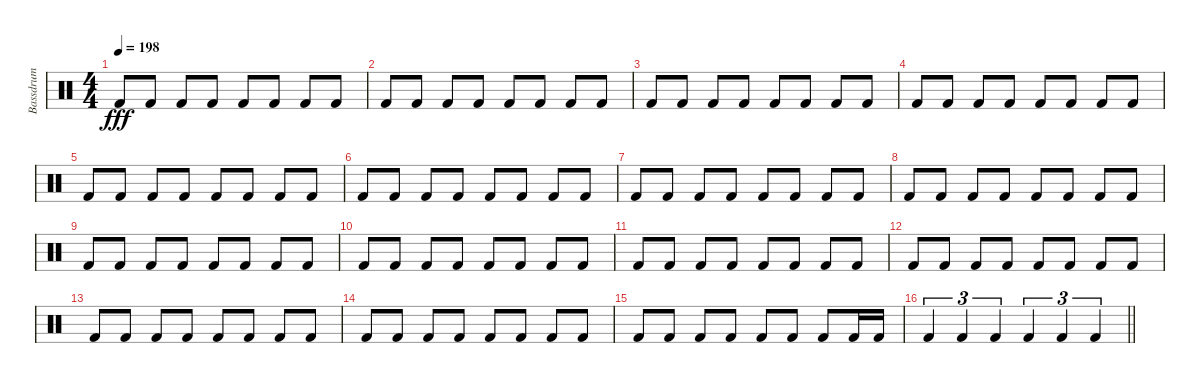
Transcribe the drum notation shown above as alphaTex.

\track ("Bassdrum" "Bassdrum") {instrument percussion}
\staff {score}
\articulation defaults
\ts (4 4)
\section ("" "")
\tempo 198
\clef neutral
\ks c "Kick (hit) 2".8{dy fff volume 15} "Kick (hit) 2".8 "Kick (hit) 2".8 "Kick (hit) 2".8 "Kick (hit) 2".8 "Kick (hit) 2".8 "Kick (hit) 2".8 "Kick (hit) 2".8
|
"Kick (hit) 2".8 "Kick (hit) 2".8 "Kick (hit) 2".8 "Kick (hit) 2".8 "Kick (hit) 2".8 "Kick (hit) 2".8 "Kick (hit) 2".8 "Kick (hit) 2".8 |
"Kick (hit) 2".8 "Kick (hit) 2".8 "Kick (hit) 2".8 "Kick (hit) 2".8 "Kick (hit) 2".8 "Kick (hit) 2".8 "Kick (hit) 2".8 "Kick (hit) 2".8 |
"Kick (hit) 2".8 "Kick (hit) 2".8 "Kick (hit) 2".8 "Kick (hit) 2".8 "Kick (hit) 2".8 "Kick (hit) 2".8 "Kick (hit) 2".8 "Kick (hit) 2".8 |
"Kick (hit) 2".8{volume 14} "Kick (hit) 2".8 "Kick (hit) 2".8 "Kick (hit) 2".8 "Kick (hit) 2".8 "Kick (hit) 2".8 "Kick (hit) 2".8 "Kick (hit) 2".8 |
"Kick (hit) 2".8 "Kick (hit) 2".8 "Kick (hit) 2".8 "Kick (hit) 2".8 "Kick (hit) 2".8 "Kick (hit) 2".8 "Kick (hit) 2".8 "Kick (hit) 2".8 |
"Kick (hit) 2".8 "Kick (hit) 2".8 "Kick (hit) 2".8 "Kick (hit) 2".8 "Kick (hit) 2".8 "Kick (hit) 2".8 "Kick (hit) 2".8 "Kick (hit) 2".8 |
"Kick (hit) 2".8 "Kick (hit) 2".8 "Kick (hit) 2".8 "Kick (hit) 2".8 "Kick (hit) 2".8 "Kick (hit) 2".8 "Kick (hit) 2".8 "Kick (hit) 2".8 |
"Kick (hit) 2".8{volume 13} "Kick (hit) 2".8 "Kick (hit) 2".8 "Kick (hit) 2".8 "Kick (hit) 2".8 "Kick (hit) 2".8 "Kick (hit) 2".8 "Kick (hit) 2".8 |
"Kick (hit) 2".8 "Kick (hit) 2".8 "Kick (hit) 2".8 "Kick (hit) 2".8 "Kick (hit) 2".8 "Kick (hit) 2".8 "Kick (hit) 2".8 "Kick (hit) 2".8 |
"Kick (hit) 2".8 "Kick (hit) 2".8 "Kick (hit) 2".8 "Kick (hit) 2".8 "Kick (hit) 2".8 "Kick (hit) 2".8 "Kick (hit) 2".8 "Kick (hit) 2".8 |
"Kick (hit) 2".8 "Kick (hit) 2".8 "Kick (hit) 2".8 "Kick (hit) 2".8 "Kick (hit) 2".8 "Kick (hit) 2".8 "Kick (hit) 2".8 "Kick (hit) 2".8 |
"Kick (hit) 2".8{volume 12} "Kick (hit) 2".8 "Kick (hit) 2".8 "Kick (hit) 2".8 "Kick (hit) 2".8 "Kick (hit) 2".8 "Kick (hit) 2".8 "Kick (hit) 2".8 |
"Kick (hit) 2".8 "Kick (hit) 2".8 "Kick (hit) 2".8 "Kick (hit) 2".8 "Kick (hit) 2".8 "Kick (hit) 2".8 "Kick (hit) 2".8 "Kick (hit) 2".8 |
"Kick (hit) 2".8 "Kick (hit) 2".8 "Kick (hit) 2".8 "Kick (hit) 2".8 "Kick (hit) 2".8 "Kick (hit) 2".8 "Kick (hit) 2".8 "Kick (hit) 2".16 "Kick (hit) 2".16 |
\barLineRight lightlight "Kick (hit) 2".4{tu (3 2)} "Kick (hit) 2".4{tu (3 2)} "Kick (hit) 2".4{tu (3 2)} "Kick (hit) 2".4{tu (3 2)} "Kick (hit) 2".4{tu (3 2)} "Kick (hit) 2".4{tu (3 2)}
